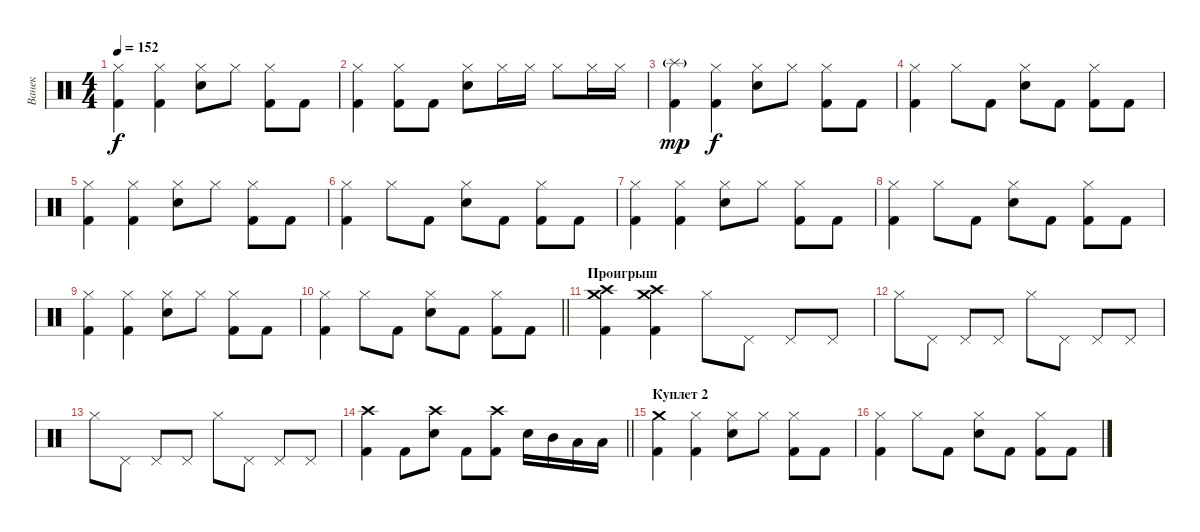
\track ("Ванек" "Ванек") {instrument percussion}
\staff {score}
\articulation defaults
\ts (4 4)
\tempo 152
\clef neutral
\ks c
("Hi-Hat (closed)" "Kick (hit) 2").4{dy f} ("Hi-Hat (closed)" "Kick (hit) 2").4 ("Hi-Hat (closed)" "Electric Snare (hit)").8 "Hi-Hat (closed)".8 ("Hi-Hat (closed)" "Kick (hit) 2").8 "Kick (hit) 2".8 |
("Hi-Hat (closed)" "Kick (hit) 2").4 ("Hi-Hat (closed)" "Kick (hit) 2").8 "Kick (hit) 2".8 ("Hi-Hat (closed)" "Electric Snare (hit)").8 "Hi-Hat (closed)".16 "Hi-Hat (closed)".16 "Hi-Hat (closed)".8 "Hi-Hat (closed)".16 "Hi-Hat (closed)".16 |
("Splash (hit)"{g} "Kick (hit) 2").4{dy mp} ("Hi-Hat (closed)" "Kick (hit) 2").4{dy f} ("Hi-Hat (closed)" "Electric Snare (hit)").8 "Hi-Hat (closed)".8 ("Hi-Hat (closed)" "Kick (hit) 2").8 "Kick (hit) 2".8 |
("Hi-Hat (closed)" "Kick (hit) 2").4 "Hi-Hat (closed)".8 "Kick (hit) 2".8 ("Hi-Hat (closed)" "Electric Snare (hit)").8 "Kick (hit) 2".8 ("Hi-Hat (closed)" "Kick (hit) 2").8 "Kick (hit) 2".8 |
("Hi-Hat (closed)" "Kick (hit) 2").4 ("Hi-Hat (closed)" "Kick (hit) 2").4 ("Hi-Hat (closed)" "Electric Snare (hit)").8 "Hi-Hat (closed)".8 ("Hi-Hat (closed)" "Kick (hit) 2").8 "Kick (hit) 2".8 |
("Hi-Hat (closed)" "Kick (hit) 2").4 "Hi-Hat (closed)".8 "Kick (hit) 2".8 ("Hi-Hat (closed)" "Electric Snare (hit)").8 "Kick (hit) 2".8 ("Hi-Hat (closed)" "Kick (hit) 2").8 "Kick (hit) 2".8 |
("Hi-Hat (closed)" "Kick (hit) 2").4 ("Hi-Hat (closed)" "Kick (hit) 2").4 ("Hi-Hat (closed)" "Electric Snare (hit)").8 "Hi-Hat (closed)".8 ("Hi-Hat (closed)" "Kick (hit) 2").8 "Kick (hit) 2".8 |
("Hi-Hat (closed)" "Kick (hit) 2").4 "Hi-Hat (closed)".8 "Kick (hit) 2".8 ("Hi-Hat (closed)" "Electric Snare (hit)").8 "Kick (hit) 2".8 ("Hi-Hat (closed)" "Kick (hit) 2").8 "Kick (hit) 2".8 |
("Hi-Hat (closed)" "Kick (hit) 2").4 ("Hi-Hat (closed)" "Kick (hit) 2").4 ("Hi-Hat (closed)" "Electric Snare (hit)").8 "Hi-Hat (closed)".8 ("Hi-Hat (closed)" "Kick (hit) 2").8 "Kick (hit) 2".8 |
\barLineRight lightlight
("Hi-Hat (closed)" "Kick (hit) 2").4 "Hi-Hat (closed)".8 "Kick (hit) 2".8 ("Hi-Hat (closed)" "Electric Snare (hit)").8 "Kick (hit) 2".8 ("Hi-Hat (closed)" "Kick (hit) 2").8 "Kick (hit) 2".8 |
\section ("" "Проигрыш")
("Crash high (hit)" "Crash medium (hit)" "Kick (hit) 2").4 ("Crash high (hit)" "Crash medium (hit)" "Kick (hit) 2").4 "Hi-Hat (closed)".8 "Pedal Hi-Hat (hit)".8 "Pedal Hi-Hat (hit)".8 "Pedal Hi-Hat (hit)".8 |
"Hi-Hat (closed)".8 "Pedal Hi-Hat (hit)".8 "Pedal Hi-Hat (hit)".8 "Pedal Hi-Hat (hit)".8 "Hi-Hat (closed)".8 "Pedal Hi-Hat (hit)".8 "Pedal Hi-Hat (hit)".8 "Pedal Hi-Hat (hit)".8 |
"Hi-Hat (closed)".8 "Pedal Hi-Hat (hit)".8 "Pedal Hi-Hat (hit)".8 "Pedal Hi-Hat (hit)".8 "Hi-Hat (closed)".8 "Pedal Hi-Hat (hit)".8 "Pedal Hi-Hat (hit)".8 "Pedal Hi-Hat (hit)".8 |
\barLineRight lightlight
("Crash high (hit)" "Kick (hit) 2").4 "Kick (hit) 2".8 ("Crash high (hit)" "Electric Snare (hit)").8 "Kick (hit) 2".8 ("Crash high (hit)" "Kick (hit) 2").8 "Electric Snare (hit)".16 "Mid Tom (hit)".16 "Low Tom (hit)".16 "Low Floor Tom (hit)".16 |
\section ("" "Куплет 2")
("Crash medium (hit)" "Kick (hit) 2").4 ("Hi-Hat (closed)" "Kick (hit) 2").4 ("Hi-Hat (closed)" "Electric Snare (hit)").8 "Hi-Hat (closed)".8 ("Hi-Hat (closed)" "Kick (hit) 2").8 "Kick (hit) 2".8 |
("Hi-Hat (closed)" "Kick (hit) 2").4 "Hi-Hat (closed)".8 "Kick (hit) 2".8 ("Hi-Hat (closed)" "Electric Snare (hit)").8 "Kick (hit) 2".8 ("Hi-Hat (closed)" "Kick (hit) 2").8 "Kick (hit) 2".8
